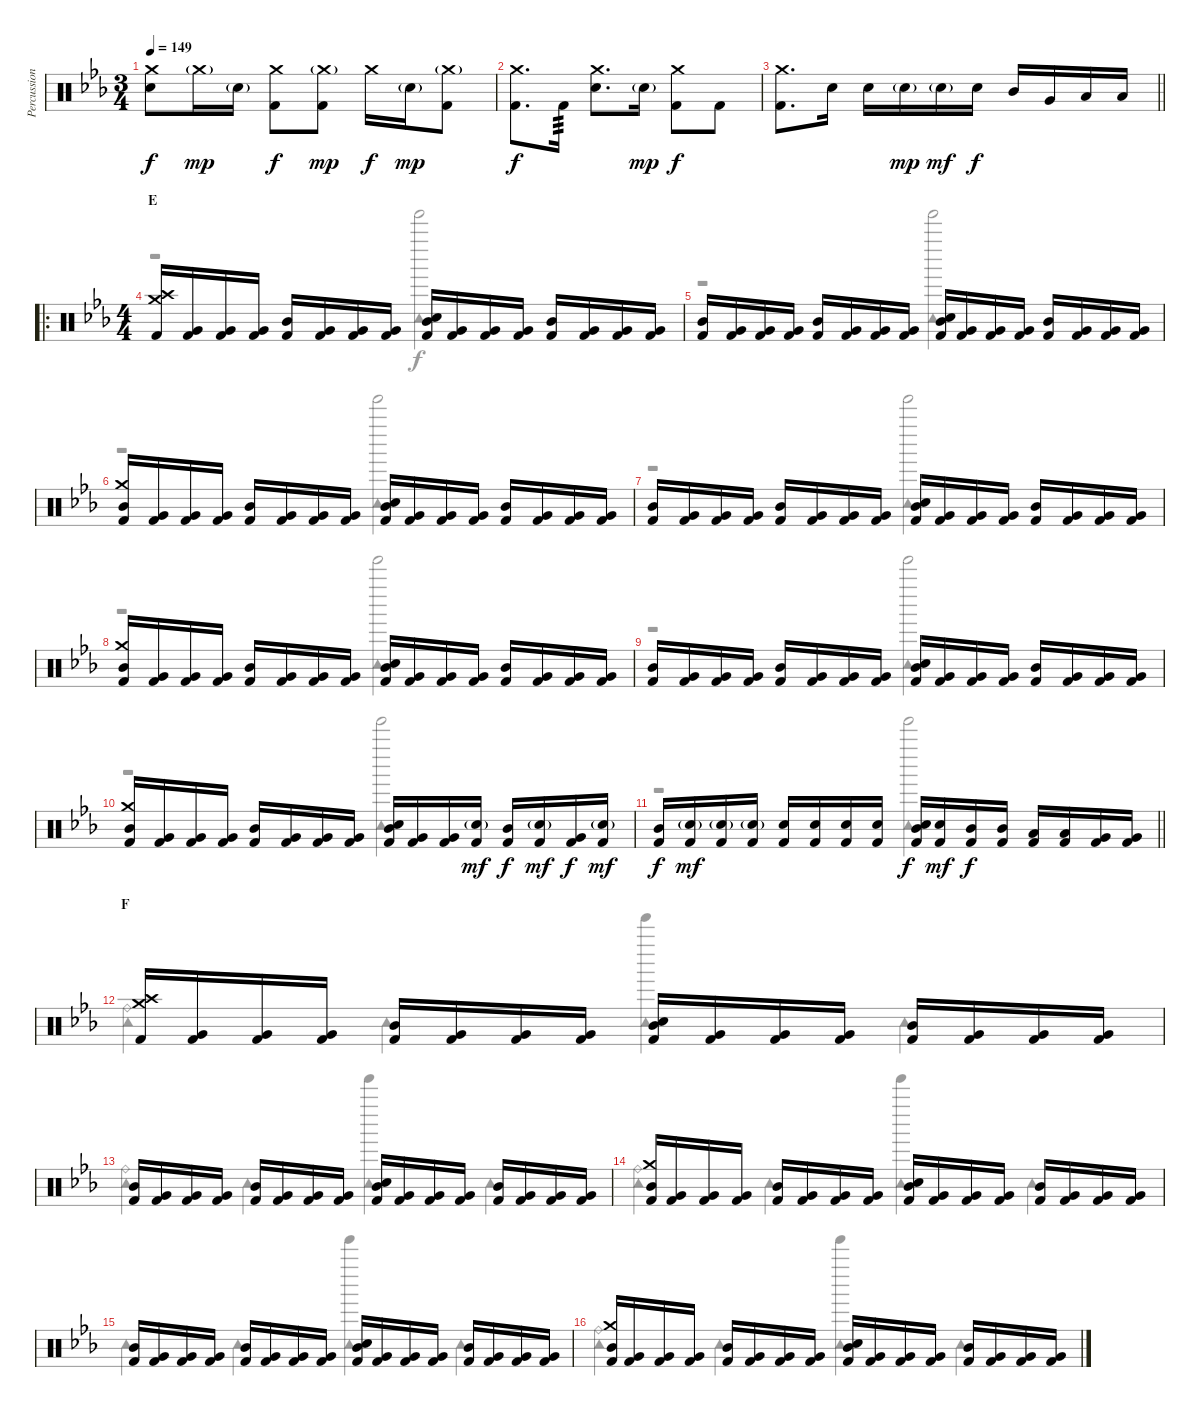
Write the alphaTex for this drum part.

\track ("Percussion" "Percussion") {instrument percussion}
\staff {score}
\articulation defaults
\voice
\ts (3 4)
\tempo 149
\clef neutral
\ks cminor
("Crash medium (hit)" "Snare (hit) 2").8{dy f} "Crash medium (hit)"{g}.16{dy mp} "Snare (hit) 2"{g}.16 ("Crash medium (hit)" "Kick (hit) 2").8{dy f} ("Crash medium (hit)"{g} "Kick (hit) 2").8{dy mp} "Crash medium (hit)".16{dy f} "Snare (hit) 2"{g}.16{dy mp} ("Crash medium (hit)"{g} "Kick (hit) 2").8 |
("Crash medium (hit)" "Kick (hit) 2").8{d dy f} "Kick (hit) 2".16{tp 3} ("Crash medium (hit)" "Snare (hit) 2").8{d} "Snare (hit) 2"{g}.16{dy mp} ("Crash medium (hit)" "Kick (hit) 2").8{dy f} "Kick (hit) 2".8 |
\barLineRight lightlight
("Crash medium (hit)" "Kick (hit) 2").8{d} "Snare (hit) 2".16 "Snare (hit) 2".16 "Snare (hit) 2"{g}.16{dy mp} "Snare (hit) 2"{g}.16{dy mf} "Snare (hit) 2".16{dy f} "Mid Tom (hit)".16 "Very Low Tom (hit)".16 "Low Tom (hit)".16 "Low Floor Tom (hit)".16 |
\ro
\ts (4 4)
\section ("" "E")
("Crash medium (hit)" "Crash high (hit)" "Kick (hit) 2").16 ("Very Low Tom (hit)" "Kick (hit) 2").16 ("Very Low Tom (hit)" "Kick (hit) 2").16 ("Very Low Tom (hit)" "Kick (hit) 2").16 ("Mid Tom (hit)" "Kick (hit) 2").16 ("Very Low Tom (hit)" "Kick (hit) 2").16 ("Very Low Tom (hit)" "Kick (hit) 2").16 ("Very Low Tom (hit)" "Kick (hit) 2").16 ("Mid Tom (hit)" "Snare (hit) 2" "Kick (hit) 2").16 ("Very Low Tom (hit)" "Kick (hit) 2").16 ("Very Low Tom (hit)" "Kick (hit) 2").16 ("Very Low Tom (hit)" "Kick (hit) 2").16 ("Mid Tom (hit)" "Kick (hit) 2").16 ("Very Low Tom (hit)" "Kick (hit) 2").16 ("Very Low Tom (hit)" "Kick (hit) 2").16 ("Very Low Tom (hit)" "Kick (hit) 2").16 |
("Mid Tom (hit)" "Kick (hit) 2").16 ("Very Low Tom (hit)" "Kick (hit) 2").16 ("Very Low Tom (hit)" "Kick (hit) 2").16 ("Very Low Tom (hit)" "Kick (hit) 2").16 ("Mid Tom (hit)" "Kick (hit) 2").16 ("Very Low Tom (hit)" "Kick (hit) 2").16 ("Very Low Tom (hit)" "Kick (hit) 2").16 ("Very Low Tom (hit)" "Kick (hit) 2").16 ("Mid Tom (hit)" "Snare (hit) 2" "Kick (hit) 2").16 ("Very Low Tom (hit)" "Kick (hit) 2").16 ("Very Low Tom (hit)" "Kick (hit) 2").16 ("Very Low Tom (hit)" "Kick (hit) 2").16 ("Mid Tom (hit)" "Kick (hit) 2").16 ("Very Low Tom (hit)" "Kick (hit) 2").16 ("Very Low Tom (hit)" "Kick (hit) 2").16 ("Very Low Tom (hit)" "Kick (hit) 2").16 |
("Crash medium (hit)" "Mid Tom (hit)" "Kick (hit) 2").16 ("Very Low Tom (hit)" "Kick (hit) 2").16 ("Very Low Tom (hit)" "Kick (hit) 2").16 ("Very Low Tom (hit)" "Kick (hit) 2").16 ("Mid Tom (hit)" "Kick (hit) 2").16 ("Very Low Tom (hit)" "Kick (hit) 2").16 ("Very Low Tom (hit)" "Kick (hit) 2").16 ("Very Low Tom (hit)" "Kick (hit) 2").16 ("Mid Tom (hit)" "Snare (hit) 2" "Kick (hit) 2").16 ("Very Low Tom (hit)" "Kick (hit) 2").16 ("Very Low Tom (hit)" "Kick (hit) 2").16 ("Very Low Tom (hit)" "Kick (hit) 2").16 ("Mid Tom (hit)" "Kick (hit) 2").16 ("Very Low Tom (hit)" "Kick (hit) 2").16 ("Very Low Tom (hit)" "Kick (hit) 2").16 ("Very Low Tom (hit)" "Kick (hit) 2").16 |
("Mid Tom (hit)" "Kick (hit) 2").16 ("Very Low Tom (hit)" "Kick (hit) 2").16 ("Very Low Tom (hit)" "Kick (hit) 2").16 ("Very Low Tom (hit)" "Kick (hit) 2").16 ("Mid Tom (hit)" "Kick (hit) 2").16 ("Very Low Tom (hit)" "Kick (hit) 2").16 ("Very Low Tom (hit)" "Kick (hit) 2").16 ("Very Low Tom (hit)" "Kick (hit) 2").16 ("Mid Tom (hit)" "Snare (hit) 2" "Kick (hit) 2").16 ("Very Low Tom (hit)" "Kick (hit) 2").16 ("Very Low Tom (hit)" "Kick (hit) 2").16 ("Very Low Tom (hit)" "Kick (hit) 2").16 ("Mid Tom (hit)" "Kick (hit) 2").16 ("Very Low Tom (hit)" "Kick (hit) 2").16 ("Very Low Tom (hit)" "Kick (hit) 2").16 ("Very Low Tom (hit)" "Kick (hit) 2").16 |
("Crash medium (hit)" "Mid Tom (hit)" "Kick (hit) 2").16 ("Very Low Tom (hit)" "Kick (hit) 2").16 ("Very Low Tom (hit)" "Kick (hit) 2").16 ("Very Low Tom (hit)" "Kick (hit) 2").16 ("Mid Tom (hit)" "Kick (hit) 2").16 ("Very Low Tom (hit)" "Kick (hit) 2").16 ("Very Low Tom (hit)" "Kick (hit) 2").16 ("Very Low Tom (hit)" "Kick (hit) 2").16 ("Mid Tom (hit)" "Snare (hit) 2" "Kick (hit) 2").16 ("Very Low Tom (hit)" "Kick (hit) 2").16 ("Very Low Tom (hit)" "Kick (hit) 2").16 ("Very Low Tom (hit)" "Kick (hit) 2").16 ("Mid Tom (hit)" "Kick (hit) 2").16 ("Very Low Tom (hit)" "Kick (hit) 2").16 ("Very Low Tom (hit)" "Kick (hit) 2").16 ("Very Low Tom (hit)" "Kick (hit) 2").16 |
("Mid Tom (hit)" "Kick (hit) 2").16 ("Very Low Tom (hit)" "Kick (hit) 2").16 ("Very Low Tom (hit)" "Kick (hit) 2").16 ("Very Low Tom (hit)" "Kick (hit) 2").16 ("Mid Tom (hit)" "Kick (hit) 2").16 ("Very Low Tom (hit)" "Kick (hit) 2").16 ("Very Low Tom (hit)" "Kick (hit) 2").16 ("Very Low Tom (hit)" "Kick (hit) 2").16 ("Mid Tom (hit)" "Snare (hit) 2" "Kick (hit) 2").16 ("Very Low Tom (hit)" "Kick (hit) 2").16 ("Very Low Tom (hit)" "Kick (hit) 2").16 ("Very Low Tom (hit)" "Kick (hit) 2").16 ("Mid Tom (hit)" "Kick (hit) 2").16 ("Very Low Tom (hit)" "Kick (hit) 2").16 ("Very Low Tom (hit)" "Kick (hit) 2").16 ("Very Low Tom (hit)" "Kick (hit) 2").16 |
("Crash medium (hit)" "Mid Tom (hit)" "Kick (hit) 2").16 ("Very Low Tom (hit)" "Kick (hit) 2").16 ("Very Low Tom (hit)" "Kick (hit) 2").16 ("Very Low Tom (hit)" "Kick (hit) 2").16 ("Mid Tom (hit)" "Kick (hit) 2").16 ("Very Low Tom (hit)" "Kick (hit) 2").16 ("Very Low Tom (hit)" "Kick (hit) 2").16 ("Very Low Tom (hit)" "Kick (hit) 2").16 ("Mid Tom (hit)" "Snare (hit) 2" "Kick (hit) 2").16 ("Very Low Tom (hit)" "Kick (hit) 2").16 ("Very Low Tom (hit)" "Kick (hit) 2").16 ("Snare (hit) 2"{g} "Kick (hit) 2").16{dy mf} ("Mid Tom (hit)" "Kick (hit) 2").16{dy f} ("Snare (hit) 2"{g} "Kick (hit) 2").16{dy mf} ("Very Low Tom (hit)" "Kick (hit) 2").16{dy f} ("Snare (hit) 2"{g} "Kick (hit) 2").16{dy mf} |
\barLineRight lightlight
("Mid Tom (hit)" "Kick (hit) 2").16{dy f} ("Snare (hit) 2"{g} "Kick (hit) 2").16{dy mf} ("Snare (hit) 2"{g} "Kick (hit) 2").16 ("Snare (hit) 2"{g} "Kick (hit) 2").16 ("Snare (hit) 2" "Kick (hit) 2").16 ("Snare (hit) 2" "Kick (hit) 2").16 ("Snare (hit) 2" "Kick (hit) 2").16 ("Snare (hit) 2" "Kick (hit) 2").16 ("Mid Tom (hit)" "Snare (hit) 2" "Kick (hit) 2").16{dy f} ("Snare (hit) 2" "Kick (hit) 2").16{dy mf} ("Mid Tom (hit)" "Kick (hit) 2").16{dy f} ("Mid Tom (hit)" "Kick (hit) 2").16 ("Low Tom (hit)" "Kick (hit) 2").16 ("Low Tom (hit)" "Kick (hit) 2").16 ("Very Low Tom (hit)" "Kick (hit) 2").16 ("Very Low Tom (hit)" "Kick (hit) 2").16 |
\section ("" "F")
("Crash medium (hit)" "Crash high (hit)" "Kick (hit) 2").16 ("Very Low Tom (hit)" "Kick (hit) 2").16 ("Very Low Tom (hit)" "Kick (hit) 2").16 ("Very Low Tom (hit)" "Kick (hit) 2").16 ("Mid Tom (hit)" "Kick (hit) 2").16 ("Very Low Tom (hit)" "Kick (hit) 2").16 ("Very Low Tom (hit)" "Kick (hit) 2").16 ("Very Low Tom (hit)" "Kick (hit) 2").16 ("Mid Tom (hit)" "Snare (hit) 2" "Kick (hit) 2").16 ("Very Low Tom (hit)" "Kick (hit) 2").16 ("Very Low Tom (hit)" "Kick (hit) 2").16 ("Very Low Tom (hit)" "Kick (hit) 2").16 ("Mid Tom (hit)" "Kick (hit) 2").16 ("Very Low Tom (hit)" "Kick (hit) 2").16 ("Very Low Tom (hit)" "Kick (hit) 2").16 ("Very Low Tom (hit)" "Kick (hit) 2").16 |
("Mid Tom (hit)" "Kick (hit) 2").16 ("Very Low Tom (hit)" "Kick (hit) 2").16 ("Very Low Tom (hit)" "Kick (hit) 2").16 ("Very Low Tom (hit)" "Kick (hit) 2").16 ("Mid Tom (hit)" "Kick (hit) 2").16 ("Very Low Tom (hit)" "Kick (hit) 2").16 ("Very Low Tom (hit)" "Kick (hit) 2").16 ("Very Low Tom (hit)" "Kick (hit) 2").16 ("Mid Tom (hit)" "Snare (hit) 2" "Kick (hit) 2").16 ("Very Low Tom (hit)" "Kick (hit) 2").16 ("Very Low Tom (hit)" "Kick (hit) 2").16 ("Very Low Tom (hit)" "Kick (hit) 2").16 ("Mid Tom (hit)" "Kick (hit) 2").16 ("Very Low Tom (hit)" "Kick (hit) 2").16 ("Very Low Tom (hit)" "Kick (hit) 2").16 ("Very Low Tom (hit)" "Kick (hit) 2").16 |
("Crash medium (hit)" "Mid Tom (hit)" "Kick (hit) 2").16 ("Very Low Tom (hit)" "Kick (hit) 2").16 ("Very Low Tom (hit)" "Kick (hit) 2").16 ("Very Low Tom (hit)" "Kick (hit) 2").16 ("Mid Tom (hit)" "Kick (hit) 2").16 ("Very Low Tom (hit)" "Kick (hit) 2").16 ("Very Low Tom (hit)" "Kick (hit) 2").16 ("Very Low Tom (hit)" "Kick (hit) 2").16 ("Mid Tom (hit)" "Snare (hit) 2" "Kick (hit) 2").16 ("Very Low Tom (hit)" "Kick (hit) 2").16 ("Very Low Tom (hit)" "Kick (hit) 2").16 ("Very Low Tom (hit)" "Kick (hit) 2").16 ("Mid Tom (hit)" "Kick (hit) 2").16 ("Very Low Tom (hit)" "Kick (hit) 2").16 ("Very Low Tom (hit)" "Kick (hit) 2").16 ("Very Low Tom (hit)" "Kick (hit) 2").16 |
("Mid Tom (hit)" "Kick (hit) 2").16 ("Very Low Tom (hit)" "Kick (hit) 2").16 ("Very Low Tom (hit)" "Kick (hit) 2").16 ("Very Low Tom (hit)" "Kick (hit) 2").16 ("Mid Tom (hit)" "Kick (hit) 2").16 ("Very Low Tom (hit)" "Kick (hit) 2").16 ("Very Low Tom (hit)" "Kick (hit) 2").16 ("Very Low Tom (hit)" "Kick (hit) 2").16 ("Mid Tom (hit)" "Snare (hit) 2" "Kick (hit) 2").16 ("Very Low Tom (hit)" "Kick (hit) 2").16 ("Very Low Tom (hit)" "Kick (hit) 2").16 ("Very Low Tom (hit)" "Kick (hit) 2").16 ("Mid Tom (hit)" "Kick (hit) 2").16 ("Very Low Tom (hit)" "Kick (hit) 2").16 ("Very Low Tom (hit)" "Kick (hit) 2").16 ("Very Low Tom (hit)" "Kick (hit) 2").16 |
("Crash medium (hit)" "Mid Tom (hit)" "Kick (hit) 2").16 ("Very Low Tom (hit)" "Kick (hit) 2").16 ("Very Low Tom (hit)" "Kick (hit) 2").16 ("Very Low Tom (hit)" "Kick (hit) 2").16 ("Mid Tom (hit)" "Kick (hit) 2").16 ("Very Low Tom (hit)" "Kick (hit) 2").16 ("Very Low Tom (hit)" "Kick (hit) 2").16 ("Very Low Tom (hit)" "Kick (hit) 2").16 ("Mid Tom (hit)" "Snare (hit) 2" "Kick (hit) 2").16 ("Very Low Tom (hit)" "Kick (hit) 2").16 ("Very Low Tom (hit)" "Kick (hit) 2").16 ("Very Low Tom (hit)" "Kick (hit) 2").16 ("Mid Tom (hit)" "Kick (hit) 2").16 ("Very Low Tom (hit)" "Kick (hit) 2").16 ("Very Low Tom (hit)" "Kick (hit) 2").16 ("Very Low Tom (hit)" "Kick (hit) 2").16
\voice
\clef neutral
\ottava regular
\simile none
\ks cminor
|
|
\barLineRight lightlight
|
r.2 ("Tinkle Bell (hit)" "Tambourine (hit)").2 |
r.2 ("Tinkle Bell (hit)" "Tambourine (hit)").2 |
r.2 ("Tinkle Bell (hit)" "Tambourine (hit)").2 |
r.2 ("Tinkle Bell (hit)" "Tambourine (hit)").2 |
r.2 ("Tinkle Bell (hit)" "Tambourine (hit)").2 |
r.2 ("Tinkle Bell (hit)" "Tambourine (hit)").2 |
r.2 ("Tinkle Bell (hit)" "Tambourine (hit)").2 |
\barLineRight lightlight
r.2 ("Tinkle Bell (hit)" "Tambourine (hit)").2 |
("Ride (bell)" "Tambourine (hit)").4 "Tambourine (hit)".4 ("Tinkle Bell (hit)" "Tambourine (hit)").4 "Tambourine (hit)".4 |
("Ride (bell)" "Tambourine (hit)").4 "Tambourine (hit)".4 ("Tinkle Bell (hit)" "Tambourine (hit)").4 "Tambourine (hit)".4 |
("Ride (bell)" "Tambourine (hit)").4 "Tambourine (hit)".4 ("Tinkle Bell (hit)" "Tambourine (hit)").4 "Tambourine (hit)".4 |
"Tambourine (hit)".4 "Tambourine (hit)".4 ("Tinkle Bell (hit)" "Tambourine (hit)").4 "Tambourine (hit)".4 |
("Ride (bell)" "Tambourine (hit)").4 "Tambourine (hit)".4 ("Tinkle Bell (hit)" "Tambourine (hit)").4 "Tambourine (hit)".4
